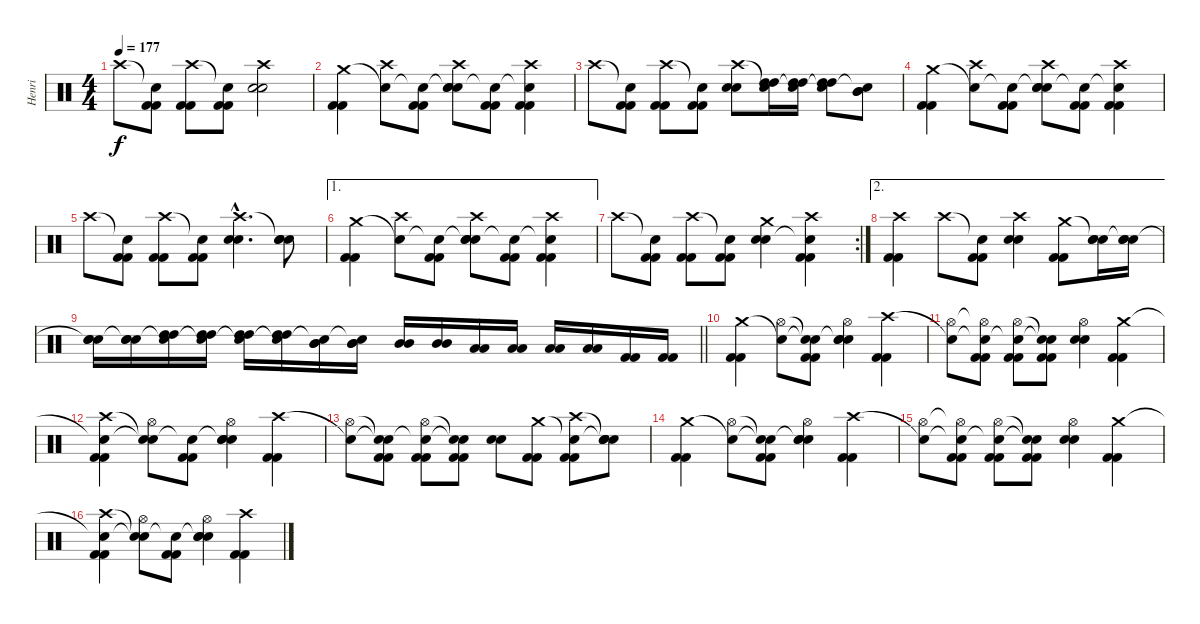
\track ("Henri" "Henri") {instrument percussion}
\staff {score}
\articulation defaults
\ts (4 4)
\tempo 177
\clef neutral
\ks c "Crash high (hit)".8{dy f}
("Snare (hit)"{t} "Kick (hit) 2" "Kick (hit) 2").8 ("Crash high (hit)" "Kick (hit) 2" "Kick (hit) 2").8 ("Snare (hit)"{t} "Kick (hit) 2" "Kick (hit) 2").8 ("Crash high (hit)" "Snare (hit) 2" "Snare (hit) 2").2 |
("Crash medium (hit)" "Kick (hit) 2" "Kick (hit) 2").4 ("Snare (hit)"{t} "Crash high (hit)").8 ("Snare (hit)"{t} "Kick (hit) 2" "Kick (hit) 2").8 ("Snare (hit)"{t} "Crash high (hit)" "Snare (hit) 2" "Snare (hit) 2").8 ("Snare (hit)"{t} "Kick (hit) 2" "Kick (hit) 2").8 ("Snare (hit)"{t} "Crash high (hit)" "Kick (hit) 2" "Kick (hit) 2").4 |
"Crash high (hit)".8 ("Snare (hit)"{t} "Kick (hit) 2" "Kick (hit) 2").8 ("Crash high (hit)" "Kick (hit) 2" "Kick (hit) 2").8 ("Snare (hit)"{t} "Kick (hit) 2" "Kick (hit) 2").8 ("Crash high (hit)" "Snare (hit) 2" "Snare (hit) 2").8 ("Snare (hit)"{t} "High Tom (hit)" "High Tom (hit)").16 ("Snare (hit)"{t} "High Tom (hit)" "High Tom (hit)").16 ("Snare (hit)"{t} "High Tom (hit)" "High Tom (hit)").8 ("Snare (hit)"{t} "Mid Tom (hit)" "Mid Tom (hit)").8 |
("Crash medium (hit)" "Kick (hit) 2" "Kick (hit) 2").4 ("Snare (hit)"{t} "Crash high (hit)").8 ("Snare (hit)"{t} "Kick (hit) 2" "Kick (hit) 2").8 ("Snare (hit)"{t} "Crash high (hit)" "Snare (hit) 2" "Snare (hit) 2").8 ("Snare (hit)"{t} "Kick (hit) 2" "Kick (hit) 2").8 ("Snare (hit)"{t} "Crash high (hit)" "Kick (hit) 2" "Kick (hit) 2").4 |
"Crash high (hit)".8 ("Snare (hit)"{t} "Kick (hit) 2" "Kick (hit) 2").8 ("Crash high (hit)" "Kick (hit) 2" "Kick (hit) 2").8 ("Snare (hit)"{t} "Kick (hit) 2" "Kick (hit) 2").8 ("Crash high (hit)"{hac} "Snare (hit) 2"{hac} "Snare (hit) 2"{hac}).4{d} ("Snare (hit)"{t} "Snare (hit) 2" "Snare (hit) 2").8 |
\ae 1
("Crash medium (hit)" "Kick (hit) 2" "Kick (hit) 2").4 ("Snare (hit)"{t} "Crash high (hit)").8 ("Snare (hit)"{t} "Kick (hit) 2" "Kick (hit) 2").8 ("Snare (hit)"{t} "Crash high (hit)" "Snare (hit) 2" "Snare (hit) 2").8 ("Snare (hit)"{t} "Kick (hit) 2" "Kick (hit) 2").8 ("Snare (hit)"{t} "Crash high (hit)" "Kick (hit) 2" "Kick (hit) 2").4 |
\rc 2 "Crash high (hit)".8
("Snare (hit)"{t} "Kick (hit) 2" "Kick (hit) 2").8 ("Crash high (hit)" "Kick (hit) 2" "Kick (hit) 2").8 ("Snare (hit)"{t} "Kick (hit) 2" "Kick (hit) 2").8 ("Crash medium (hit)" "Snare (hit) 2" "Snare (hit) 2").4 ("Crash high (hit)" "Snare (hit)"{t} "Kick (hit) 2" "Kick (hit) 2").4 |
\ae 2
("Crash high (hit)" "Kick (hit) 2" "Kick (hit) 2").4 "Crash high (hit)".8 ("Snare (hit)"{t} "Kick (hit) 2" "Kick (hit) 2").8 ("Crash high (hit)" "Snare (hit) 2" "Snare (hit) 2").4 ("Crash medium (hit)" "Kick (hit) 2" "Kick (hit) 2").8 ("Snare (hit)"{t} "Snare (hit) 2" "Snare (hit) 2").16 ("Snare (hit)"{t} "Snare (hit) 2" "Snare (hit) 2").16 |
\barLineRight lightlight
("Snare (hit)"{t} "Snare (hit) 2" "Snare (hit) 2").16 ("Snare (hit)"{t} "Snare (hit) 2" "Snare (hit) 2").16 ("Snare (hit)"{t} "High Tom (hit)" "High Tom (hit)").16 ("Snare (hit)"{t} "High Tom (hit)" "High Tom (hit)").16 ("Snare (hit)"{t} "High Tom (hit)" "High Tom (hit)").16 ("Snare (hit)"{t} "High Tom (hit)" "High Tom (hit)").16 ("Snare (hit)"{t} "Mid Tom (hit)" "Mid Tom (hit)").16 ("Snare (hit)"{t} "Mid Tom (hit)" "Mid Tom (hit)").16 ("Mid Tom (hit)" "Mid Tom (hit)").16 ("Mid Tom (hit)" "Mid Tom (hit)").16 ("Low Tom (hit)" "Low Tom (hit)").16 ("Low Tom (hit)" "Low Tom (hit)").16 ("Low Tom (hit)" "Low Tom (hit)").16 ("Low Tom (hit)" "Low Tom (hit)").16 ("Kick (hit) 2" "Kick (hit) 2").16 ("Kick (hit) 2" "Kick (hit) 2").16 |
("Crash medium (hit)" "Kick (hit) 2" "Kick (hit) 2").4 ("Snare (hit)"{t} "Hi-Hat (open)").8 ("Snare (hit)"{t} "Snare (hit)"{t} "Kick (hit) 2" "Kick (hit) 2").8 ("Snare (hit)"{t} "Hi-Hat (open)" "Snare (hit) 2" "Snare (hit) 2").4 ("Crash high (hit)" "Kick (hit) 2" "Kick (hit) 2").4 |
("Snare (hit)"{t} "Hi-Hat (open)").8 ("Snare (hit)"{t} "Hi-Hat (open)"{t} "Kick (hit) 2" "Kick (hit) 2").8 ("Snare (hit)"{t} "Hi-Hat (open)" "Kick (hit) 2" "Kick (hit) 2").8 ("Snare (hit)"{t} "Snare (hit)"{t} "Kick (hit) 2" "Kick (hit) 2").8 ("Hi-Hat (open)" "Snare (hit) 2" "Snare (hit) 2").4 ("Crash medium (hit)" "Kick (hit) 2" "Kick (hit) 2").4 |
("Snare (hit)"{t} "Crash high (hit)" "Kick (hit) 2" "Kick (hit) 2").4 ("Snare (hit)"{t} "Snare (hit)"{t} "Hi-Hat (open)").8 ("Snare (hit)"{t} "Kick (hit) 2" "Kick (hit) 2").8 ("Snare (hit)"{t} "Hi-Hat (open)" "Snare (hit) 2" "Snare (hit) 2").4 ("Crash high (hit)" "Kick (hit) 2" "Kick (hit) 2").4 |
("Snare (hit)"{t} "Hi-Hat (open)").8 ("Snare (hit)"{t} "Snare (hit)"{t} "Kick (hit) 2" "Kick (hit) 2").8 ("Snare (hit)"{t} "Hi-Hat (open)" "Kick (hit) 2" "Kick (hit) 2").8 ("Snare (hit)"{t} "Snare (hit)"{t} "Kick (hit) 2" "Kick (hit) 2").8 ("Snare (hit) 2" "Snare (hit) 2").8 ("Crash medium (hit)" "Kick (hit) 2" "Kick (hit) 2").8 ("Snare (hit)"{t} "Crash high (hit)" "Kick (hit) 2" "Kick (hit) 2").8 ("Snare (hit)"{t} "Snare (hit)"{t} "Snare (hit) 2" "Snare (hit) 2").8 |
("Crash medium (hit)" "Kick (hit) 2" "Kick (hit) 2").4 ("Snare (hit)"{t} "Hi-Hat (open)").8 ("Snare (hit)"{t} "Snare (hit)"{t} "Kick (hit) 2" "Kick (hit) 2").8 ("Snare (hit)"{t} "Hi-Hat (open)" "Snare (hit) 2" "Snare (hit) 2").4 ("Crash high (hit)" "Kick (hit) 2" "Kick (hit) 2").4 |
("Snare (hit)"{t} "Hi-Hat (open)").8 ("Snare (hit)"{t} "Hi-Hat (open)"{t} "Kick (hit) 2" "Kick (hit) 2").8 ("Snare (hit)"{t} "Hi-Hat (open)" "Kick (hit) 2" "Kick (hit) 2").8 ("Snare (hit)"{t} "Snare (hit)"{t} "Kick (hit) 2" "Kick (hit) 2").8 ("Hi-Hat (open)" "Snare (hit) 2" "Snare (hit) 2").4 ("Crash medium (hit)" "Kick (hit) 2" "Kick (hit) 2").4 |
("Snare (hit)"{t} "Crash high (hit)" "Kick (hit) 2" "Kick (hit) 2").4 ("Snare (hit)"{t} "Snare (hit)"{t} "Hi-Hat (open)").8 ("Snare (hit)"{t} "Kick (hit) 2" "Kick (hit) 2").8 ("Snare (hit)"{t} "Hi-Hat (open)" "Snare (hit) 2" "Snare (hit) 2").4 ("Crash high (hit)" "Kick (hit) 2" "Kick (hit) 2").4
